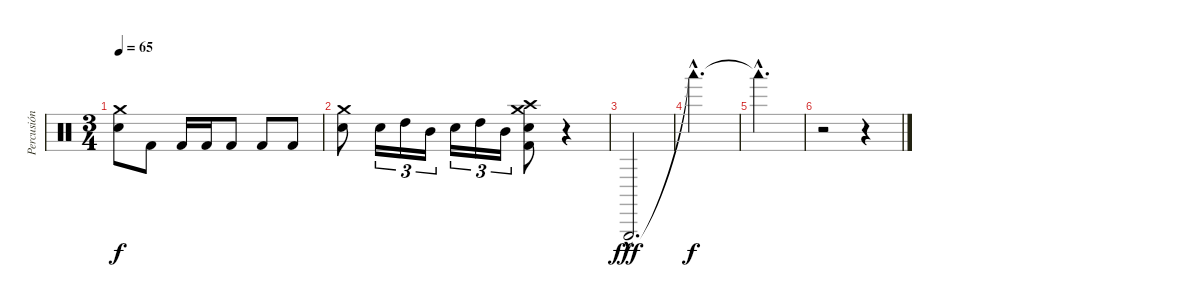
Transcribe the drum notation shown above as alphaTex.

\track ("Percusión" "Percusión") {instrument percussion}
\staff {score}
\articulation defaults
\ts (3 4)
\tempo 65
\clef neutral
\ks c
("Crash medium (hit)" "Electric Snare (hit)").8{dy f} "Kick (hit) 2".8 "Kick (hit) 2".16 "Kick (hit) 2".16 "Kick (hit) 2".8 "Kick (hit) 2".8 "Kick (hit) 2".8 |
("Crash medium (hit)" "Electric Snare (hit)").8 "Electric Snare (hit)".16{tu (3 2)} "High Tom (hit)".16{tu (3 2)} "Mid Tom (hit)".16{tu (3 2)} "Electric Snare (hit)".16{tu (3 2)} "High Tom (hit)".16{tu (3 2)} "Mid Tom (hit)".16{tu (3 2)} ("Crash high (hit)" "Crash medium (hit)" "Electric Snare (hit)" "Kick (hit) 2").8 r.4 |
"Triangle (hit)"{hac}.2{d dy fff} |
"Woodblock low (hit)"{hac t}.2{d dy f} |
"Woodblock low (hit)"{hac t}.2{d} |
r.2 r.4
